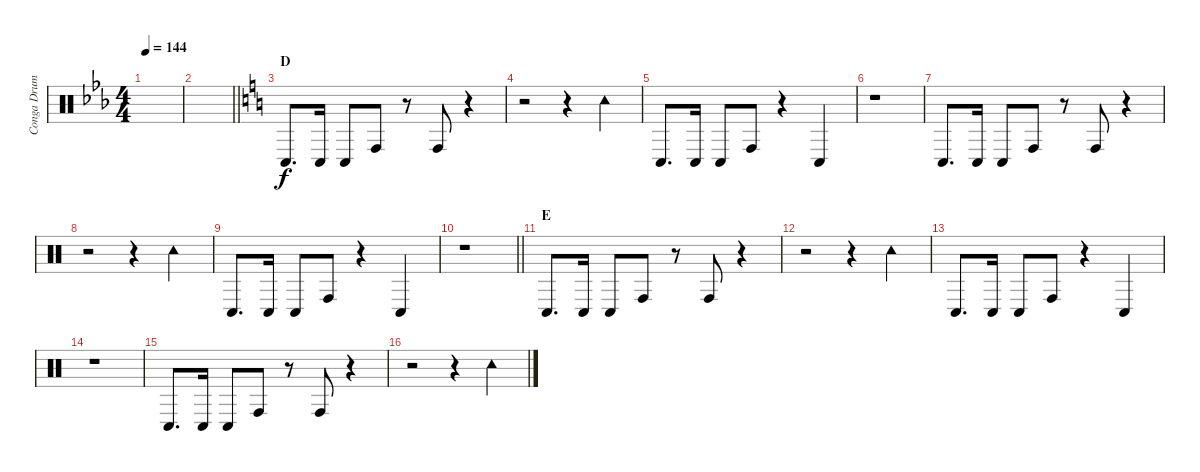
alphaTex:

\track ("Conga Drums" "Conga Drum") {instrument percussion}
\staff {score}
\articulation defaults
\ts (4 4)
\tempo 144
\clef neutral
\ks eb
|
\barLineRight lightlight
|
\section ("" "D")
\ks c "Conga low (hit)".8{d} "Conga low (hit)".16 "Conga low (hit)".8 "Conga high (hit)".8
r.8 "Conga high (hit)".8 r.4 |
r.2 r.4 "Tambourine (hit)".4 |
"Conga low (hit)".8{d} "Conga low (hit)".16 "Conga low (hit)".8 "Conga high (hit)".8 r.4 "Conga low (hit)".4 |
r.1 |
"Conga low (hit)".8{d} "Conga low (hit)".16 "Conga low (hit)".8 "Conga high (hit)".8 r.8 "Conga high (hit)".8 r.4 |
r.2 r.4 "Tambourine (hit)".4 |
"Conga low (hit)".8{d} "Conga low (hit)".16 "Conga low (hit)".8 "Conga high (hit)".8 r.4 "Conga low (hit)".4 |
\barLineRight lightlight
r.1 |
\section ("" "E")
"Conga low (hit)".8{d} "Conga low (hit)".16 "Conga low (hit)".8 "Conga high (hit)".8 r.8 "Conga high (hit)".8 r.4 |
r.2 r.4 "Tambourine (hit)".4 |
"Conga low (hit)".8{d} "Conga low (hit)".16 "Conga low (hit)".8 "Conga high (hit)".8 r.4 "Conga low (hit)".4 |
r.1 |
"Conga low (hit)".8{d} "Conga low (hit)".16 "Conga low (hit)".8 "Conga high (hit)".8 r.8 "Conga high (hit)".8 r.4 |
r.2 r.4 "Tambourine (hit)".4
